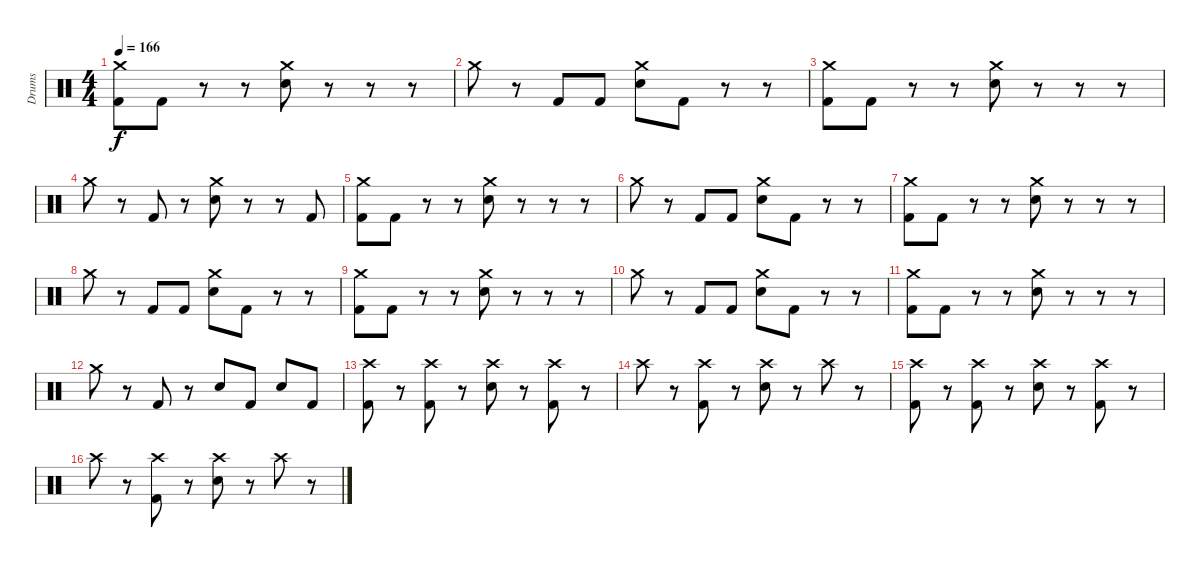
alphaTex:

\track ("Drums" "Drums") {instrument percussion}
\staff {score}
\articulation defaults
\ts (4 4)
\tempo 166
\clef neutral
\ks c
("Crash medium (hit)" "Kick (hit) 2").8{dy f} "Kick (hit) 2".8 r.8 r.8 ("Crash medium (hit)" "Snare (hit) 2").8 r.8 r.8 r.8 |
"Crash medium (hit)".8 r.8 "Kick (hit) 2".8 "Kick (hit) 2".8 ("Crash medium (hit)" "Snare (hit) 2").8 "Kick (hit) 2".8 r.8 r.8 |
("Crash medium (hit)" "Kick (hit) 2").8 "Kick (hit) 2".8 r.8 r.8 ("Crash medium (hit)" "Snare (hit) 2").8 r.8 r.8 r.8 |
"Crash medium (hit)".8 r.8 "Kick (hit) 2".8 r.8 ("Crash medium (hit)" "Snare (hit) 2").8 r.8 r.8 "Kick (hit) 2".8 |
("Crash medium (hit)" "Kick (hit) 2").8 "Kick (hit) 2".8 r.8 r.8 ("Crash medium (hit)" "Snare (hit) 2").8 r.8 r.8 r.8 |
"Crash medium (hit)".8 r.8 "Kick (hit) 2".8 "Kick (hit) 2".8 ("Crash medium (hit)" "Snare (hit) 2").8 "Kick (hit) 2".8 r.8 r.8 |
("Crash medium (hit)" "Kick (hit) 2").8 "Kick (hit) 2".8 r.8 r.8 ("Crash medium (hit)" "Snare (hit) 2").8 r.8 r.8 r.8 |
"Crash medium (hit)".8 r.8 "Kick (hit) 2".8 "Kick (hit) 2".8 ("Crash medium (hit)" "Snare (hit) 2").8 "Kick (hit) 2".8 r.8 r.8 |
("Crash medium (hit)" "Kick (hit) 2").8 "Kick (hit) 2".8 r.8 r.8 ("Crash medium (hit)" "Snare (hit) 2").8 r.8 r.8 r.8 |
"Crash medium (hit)".8 r.8 "Kick (hit) 2".8 "Kick (hit) 2".8 ("Crash medium (hit)" "Snare (hit) 2").8 "Kick (hit) 2".8 r.8 r.8 |
("Crash medium (hit)" "Kick (hit) 2").8 "Kick (hit) 2".8 r.8 r.8 ("Crash medium (hit)" "Snare (hit) 2").8 r.8 r.8 r.8 |
"Crash medium (hit)".8 r.8 "Kick (hit) 2".8 r.8 "Snare (hit) 2".8{bd 60} "Kick (hit) 2".8 "Snare (hit) 2".8{bd 60} "Kick (hit) 2".8 |
("Crash high (hit)" "Kick (hit) 2").8 r.8 ("Crash high (hit)" "Kick (hit) 2").8 r.8 ("Crash high (hit)" "Snare (hit) 2").8 r.8 ("Crash high (hit)" "Kick (hit) 2").8 r.8 |
"Crash high (hit)".8 r.8 ("Crash high (hit)" "Kick (hit) 2").8 r.8 ("Crash high (hit)" "Snare (hit) 2").8 r.8 "Crash high (hit)".8 r.8 |
("Crash high (hit)" "Kick (hit) 2").8 r.8 ("Crash high (hit)" "Kick (hit) 2").8 r.8 ("Crash high (hit)" "Snare (hit) 2").8 r.8 ("Crash high (hit)" "Kick (hit) 2").8 r.8 |
"Crash high (hit)".8 r.8 ("Crash high (hit)" "Kick (hit) 2").8 r.8 ("Crash high (hit)" "Snare (hit) 2").8 r.8 "Crash high (hit)".8 r.8
